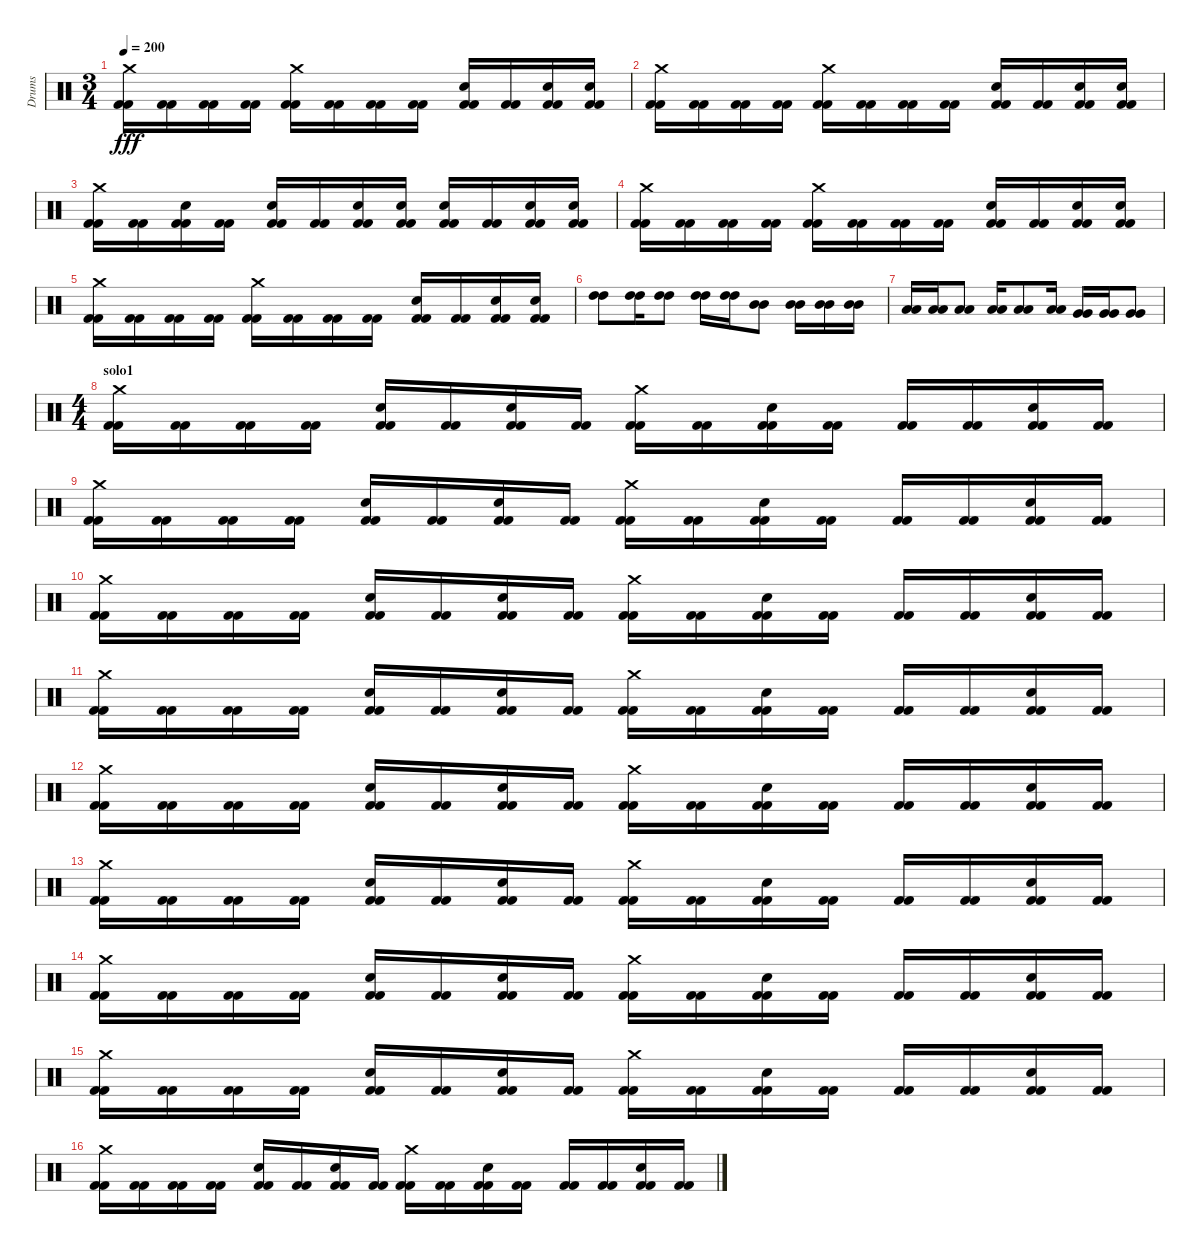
\track ("Drums" "Drums") {instrument percussion}
\staff {score}
\articulation defaults
\ts (3 4)
\tempo 200
\clef neutral
\ks c
("Crash medium (hit)" "Kick (hit) 2" "Kick (hit) 2").16{dy fff} ("Kick (hit) 2" "Kick (hit) 2").16 ("Kick (hit) 2" "Kick (hit) 2").16 ("Kick (hit) 2" "Kick (hit) 2").16 ("Crash medium (hit)" "Kick (hit) 2" "Kick (hit) 2").16 ("Kick (hit) 2" "Kick (hit) 2").16 ("Kick (hit) 2" "Kick (hit) 2").16 ("Kick (hit) 2" "Kick (hit) 2").16 ("Electric Snare (hit)" "Kick (hit) 2" "Kick (hit) 2").16 ("Kick (hit) 2" "Kick (hit) 2").16 ("Electric Snare (hit)" "Kick (hit) 2" "Kick (hit) 2").16 ("Electric Snare (hit)" "Kick (hit) 2" "Kick (hit) 2").16 |
("Crash medium (hit)" "Kick (hit) 2" "Kick (hit) 2").16 ("Kick (hit) 2" "Kick (hit) 2").16 ("Kick (hit) 2" "Kick (hit) 2").16 ("Kick (hit) 2" "Kick (hit) 2").16 ("Crash medium (hit)" "Kick (hit) 2" "Kick (hit) 2").16 ("Kick (hit) 2" "Kick (hit) 2").16 ("Kick (hit) 2" "Kick (hit) 2").16 ("Kick (hit) 2" "Kick (hit) 2").16 ("Electric Snare (hit)" "Kick (hit) 2" "Kick (hit) 2").16 ("Kick (hit) 2" "Kick (hit) 2").16 ("Electric Snare (hit)" "Kick (hit) 2" "Kick (hit) 2").16 ("Electric Snare (hit)" "Kick (hit) 2" "Kick (hit) 2").16 |
("Crash medium (hit)" "Kick (hit) 2" "Kick (hit) 2").16 ("Kick (hit) 2" "Kick (hit) 2").16 ("Electric Snare (hit)" "Kick (hit) 2" "Kick (hit) 2").16 ("Kick (hit) 2" "Kick (hit) 2").16 ("Electric Snare (hit)" "Kick (hit) 2" "Kick (hit) 2").16 ("Kick (hit) 2" "Kick (hit) 2").16 ("Electric Snare (hit)" "Kick (hit) 2" "Kick (hit) 2").16 ("Electric Snare (hit)" "Kick (hit) 2" "Kick (hit) 2").16 ("Electric Snare (hit)" "Kick (hit) 2" "Kick (hit) 2").16 ("Kick (hit) 2" "Kick (hit) 2").16 ("Electric Snare (hit)" "Kick (hit) 2" "Kick (hit) 2").16 ("Electric Snare (hit)" "Kick (hit) 2" "Kick (hit) 2").16 |
("Crash medium (hit)" "Kick (hit) 2" "Kick (hit) 2").16 ("Kick (hit) 2" "Kick (hit) 2").16 ("Kick (hit) 2" "Kick (hit) 2").16 ("Kick (hit) 2" "Kick (hit) 2").16 ("Crash medium (hit)" "Kick (hit) 2" "Kick (hit) 2").16 ("Kick (hit) 2" "Kick (hit) 2").16 ("Kick (hit) 2" "Kick (hit) 2").16 ("Kick (hit) 2" "Kick (hit) 2").16 ("Electric Snare (hit)" "Kick (hit) 2" "Kick (hit) 2").16 ("Kick (hit) 2" "Kick (hit) 2").16 ("Electric Snare (hit)" "Kick (hit) 2" "Kick (hit) 2").16 ("Electric Snare (hit)" "Kick (hit) 2" "Kick (hit) 2").16 |
("Crash medium (hit)" "Kick (hit) 2" "Kick (hit) 2").16 ("Kick (hit) 2" "Kick (hit) 2").16 ("Kick (hit) 2" "Kick (hit) 2").16 ("Kick (hit) 2" "Kick (hit) 2").16 ("Crash medium (hit)" "Kick (hit) 2" "Kick (hit) 2").16 ("Kick (hit) 2" "Kick (hit) 2").16 ("Kick (hit) 2" "Kick (hit) 2").16 ("Kick (hit) 2" "Kick (hit) 2").16 ("Electric Snare (hit)" "Kick (hit) 2" "Kick (hit) 2").16 ("Kick (hit) 2" "Kick (hit) 2").16 ("Electric Snare (hit)" "Kick (hit) 2" "Kick (hit) 2").16 ("Electric Snare (hit)" "Kick (hit) 2" "Kick (hit) 2").16 |
("High Tom (hit)" "High Tom (hit)").8 ("High Tom (hit)" "High Tom (hit)").16 ("High Tom (hit)" "High Tom (hit)").8 ("High Tom (hit)" "High Tom (hit)").16 ("High Tom (hit)" "High Tom (hit)").16 ("Mid Tom (hit)" "Mid Tom (hit)").8 ("Mid Tom (hit)" "Mid Tom (hit)").16 ("Mid Tom (hit)" "Mid Tom (hit)").16 ("Mid Tom (hit)" "Mid Tom (hit)").16 |
("Low Tom (hit)" "Low Tom (hit)").16 ("Low Tom (hit)" "Low Tom (hit)").16 ("Low Tom (hit)" "Low Tom (hit)").8 ("Low Tom (hit)" "Low Tom (hit)").16 ("Low Tom (hit)" "Low Tom (hit)").8 ("Low Tom (hit)" "Low Tom (hit)").16 ("Very Low Tom (hit)" "Very Low Tom (hit)").16 ("Very Low Tom (hit)" "Very Low Tom (hit)").16 ("Very Low Tom (hit)" "Very Low Tom (hit)").8 |
\ts (4 4)
\section ("" "solo1")
("Crash medium (hit)" "Kick (hit) 2" "Kick (hit) 2").16 ("Kick (hit) 2" "Kick (hit) 2").16 ("Kick (hit) 2" "Kick (hit) 2").16 ("Kick (hit) 2" "Kick (hit) 2").16 ("Electric Snare (hit)" "Kick (hit) 2" "Kick (hit) 2").16 ("Kick (hit) 2" "Kick (hit) 2").16 ("Electric Snare (hit)" "Kick (hit) 2" "Kick (hit) 2").16 ("Kick (hit) 2" "Kick (hit) 2").16 ("Crash medium (hit)" "Kick (hit) 2" "Kick (hit) 2").16 ("Kick (hit) 2" "Kick (hit) 2").16 ("Electric Snare (hit)" "Kick (hit) 2" "Kick (hit) 2").16 ("Kick (hit) 2" "Kick (hit) 2").16 ("Kick (hit) 2" "Kick (hit) 2").16 ("Kick (hit) 2" "Kick (hit) 2").16 ("Electric Snare (hit)" "Kick (hit) 2" "Kick (hit) 2").16 ("Kick (hit) 2" "Kick (hit) 2").16 |
("Crash medium (hit)" "Kick (hit) 2" "Kick (hit) 2").16 ("Kick (hit) 2" "Kick (hit) 2").16 ("Kick (hit) 2" "Kick (hit) 2").16 ("Kick (hit) 2" "Kick (hit) 2").16 ("Electric Snare (hit)" "Kick (hit) 2" "Kick (hit) 2").16 ("Kick (hit) 2" "Kick (hit) 2").16 ("Electric Snare (hit)" "Kick (hit) 2" "Kick (hit) 2").16 ("Kick (hit) 2" "Kick (hit) 2").16 ("Crash medium (hit)" "Kick (hit) 2" "Kick (hit) 2").16 ("Kick (hit) 2" "Kick (hit) 2").16 ("Electric Snare (hit)" "Kick (hit) 2" "Kick (hit) 2").16 ("Kick (hit) 2" "Kick (hit) 2").16 ("Kick (hit) 2" "Kick (hit) 2").16 ("Kick (hit) 2" "Kick (hit) 2").16 ("Electric Snare (hit)" "Kick (hit) 2" "Kick (hit) 2").16 ("Kick (hit) 2" "Kick (hit) 2").16 |
("Crash medium (hit)" "Kick (hit) 2" "Kick (hit) 2").16 ("Kick (hit) 2" "Kick (hit) 2").16 ("Kick (hit) 2" "Kick (hit) 2").16 ("Kick (hit) 2" "Kick (hit) 2").16 ("Electric Snare (hit)" "Kick (hit) 2" "Kick (hit) 2").16 ("Kick (hit) 2" "Kick (hit) 2").16 ("Electric Snare (hit)" "Kick (hit) 2" "Kick (hit) 2").16 ("Kick (hit) 2" "Kick (hit) 2").16 ("Crash medium (hit)" "Kick (hit) 2" "Kick (hit) 2").16 ("Kick (hit) 2" "Kick (hit) 2").16 ("Electric Snare (hit)" "Kick (hit) 2" "Kick (hit) 2").16 ("Kick (hit) 2" "Kick (hit) 2").16 ("Kick (hit) 2" "Kick (hit) 2").16 ("Kick (hit) 2" "Kick (hit) 2").16 ("Electric Snare (hit)" "Kick (hit) 2" "Kick (hit) 2").16 ("Kick (hit) 2" "Kick (hit) 2").16 |
("Crash medium (hit)" "Kick (hit) 2" "Kick (hit) 2").16 ("Kick (hit) 2" "Kick (hit) 2").16 ("Kick (hit) 2" "Kick (hit) 2").16 ("Kick (hit) 2" "Kick (hit) 2").16 ("Electric Snare (hit)" "Kick (hit) 2" "Kick (hit) 2").16 ("Kick (hit) 2" "Kick (hit) 2").16 ("Electric Snare (hit)" "Kick (hit) 2" "Kick (hit) 2").16 ("Kick (hit) 2" "Kick (hit) 2").16 ("Crash medium (hit)" "Kick (hit) 2" "Kick (hit) 2").16 ("Kick (hit) 2" "Kick (hit) 2").16 ("Electric Snare (hit)" "Kick (hit) 2" "Kick (hit) 2").16 ("Kick (hit) 2" "Kick (hit) 2").16 ("Kick (hit) 2" "Kick (hit) 2").16 ("Kick (hit) 2" "Kick (hit) 2").16 ("Electric Snare (hit)" "Kick (hit) 2" "Kick (hit) 2").16 ("Kick (hit) 2" "Kick (hit) 2").16 |
("Crash medium (hit)" "Kick (hit) 2" "Kick (hit) 2").16 ("Kick (hit) 2" "Kick (hit) 2").16 ("Kick (hit) 2" "Kick (hit) 2").16 ("Kick (hit) 2" "Kick (hit) 2").16 ("Electric Snare (hit)" "Kick (hit) 2" "Kick (hit) 2").16 ("Kick (hit) 2" "Kick (hit) 2").16 ("Electric Snare (hit)" "Kick (hit) 2" "Kick (hit) 2").16 ("Kick (hit) 2" "Kick (hit) 2").16 ("Crash medium (hit)" "Kick (hit) 2" "Kick (hit) 2").16 ("Kick (hit) 2" "Kick (hit) 2").16 ("Electric Snare (hit)" "Kick (hit) 2" "Kick (hit) 2").16 ("Kick (hit) 2" "Kick (hit) 2").16 ("Kick (hit) 2" "Kick (hit) 2").16 ("Kick (hit) 2" "Kick (hit) 2").16 ("Electric Snare (hit)" "Kick (hit) 2" "Kick (hit) 2").16 ("Kick (hit) 2" "Kick (hit) 2").16 |
("Crash medium (hit)" "Kick (hit) 2" "Kick (hit) 2").16 ("Kick (hit) 2" "Kick (hit) 2").16 ("Kick (hit) 2" "Kick (hit) 2").16 ("Kick (hit) 2" "Kick (hit) 2").16 ("Electric Snare (hit)" "Kick (hit) 2" "Kick (hit) 2").16 ("Kick (hit) 2" "Kick (hit) 2").16 ("Electric Snare (hit)" "Kick (hit) 2" "Kick (hit) 2").16 ("Kick (hit) 2" "Kick (hit) 2").16 ("Crash medium (hit)" "Kick (hit) 2" "Kick (hit) 2").16 ("Kick (hit) 2" "Kick (hit) 2").16 ("Electric Snare (hit)" "Kick (hit) 2" "Kick (hit) 2").16 ("Kick (hit) 2" "Kick (hit) 2").16 ("Kick (hit) 2" "Kick (hit) 2").16 ("Kick (hit) 2" "Kick (hit) 2").16 ("Electric Snare (hit)" "Kick (hit) 2" "Kick (hit) 2").16 ("Kick (hit) 2" "Kick (hit) 2").16 |
("Crash medium (hit)" "Kick (hit) 2" "Kick (hit) 2").16 ("Kick (hit) 2" "Kick (hit) 2").16 ("Kick (hit) 2" "Kick (hit) 2").16 ("Kick (hit) 2" "Kick (hit) 2").16 ("Electric Snare (hit)" "Kick (hit) 2" "Kick (hit) 2").16 ("Kick (hit) 2" "Kick (hit) 2").16 ("Electric Snare (hit)" "Kick (hit) 2" "Kick (hit) 2").16 ("Kick (hit) 2" "Kick (hit) 2").16 ("Crash medium (hit)" "Kick (hit) 2" "Kick (hit) 2").16 ("Kick (hit) 2" "Kick (hit) 2").16 ("Electric Snare (hit)" "Kick (hit) 2" "Kick (hit) 2").16 ("Kick (hit) 2" "Kick (hit) 2").16 ("Kick (hit) 2" "Kick (hit) 2").16 ("Kick (hit) 2" "Kick (hit) 2").16 ("Electric Snare (hit)" "Kick (hit) 2" "Kick (hit) 2").16 ("Kick (hit) 2" "Kick (hit) 2").16 |
("Crash medium (hit)" "Kick (hit) 2" "Kick (hit) 2").16 ("Kick (hit) 2" "Kick (hit) 2").16 ("Kick (hit) 2" "Kick (hit) 2").16 ("Kick (hit) 2" "Kick (hit) 2").16 ("Electric Snare (hit)" "Kick (hit) 2" "Kick (hit) 2").16 ("Kick (hit) 2" "Kick (hit) 2").16 ("Electric Snare (hit)" "Kick (hit) 2" "Kick (hit) 2").16 ("Kick (hit) 2" "Kick (hit) 2").16 ("Crash medium (hit)" "Kick (hit) 2" "Kick (hit) 2").16 ("Kick (hit) 2" "Kick (hit) 2").16 ("Electric Snare (hit)" "Kick (hit) 2" "Kick (hit) 2").16 ("Kick (hit) 2" "Kick (hit) 2").16 ("Kick (hit) 2" "Kick (hit) 2").16 ("Kick (hit) 2" "Kick (hit) 2").16 ("Electric Snare (hit)" "Kick (hit) 2" "Kick (hit) 2").16 ("Kick (hit) 2" "Kick (hit) 2").16 |
("Crash medium (hit)" "Kick (hit) 2" "Kick (hit) 2").16 ("Kick (hit) 2" "Kick (hit) 2").16 ("Kick (hit) 2" "Kick (hit) 2").16 ("Kick (hit) 2" "Kick (hit) 2").16 ("Electric Snare (hit)" "Kick (hit) 2" "Kick (hit) 2").16 ("Kick (hit) 2" "Kick (hit) 2").16 ("Electric Snare (hit)" "Kick (hit) 2" "Kick (hit) 2").16 ("Kick (hit) 2" "Kick (hit) 2").16 ("Crash medium (hit)" "Kick (hit) 2" "Kick (hit) 2").16 ("Kick (hit) 2" "Kick (hit) 2").16 ("Electric Snare (hit)" "Kick (hit) 2" "Kick (hit) 2").16 ("Kick (hit) 2" "Kick (hit) 2").16 ("Kick (hit) 2" "Kick (hit) 2").16 ("Kick (hit) 2" "Kick (hit) 2").16 ("Electric Snare (hit)" "Kick (hit) 2" "Kick (hit) 2").16 ("Kick (hit) 2" "Kick (hit) 2").16
